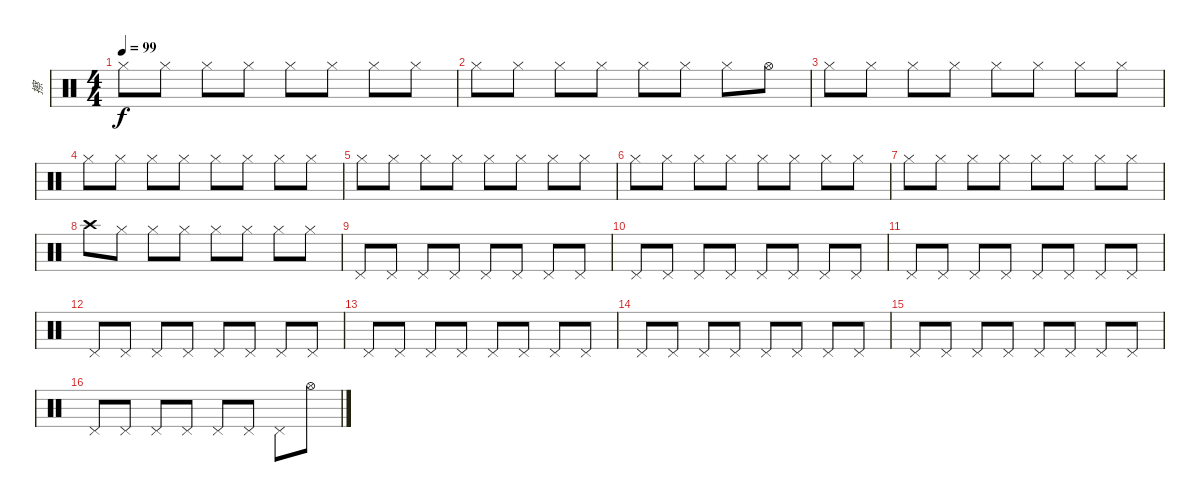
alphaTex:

\track ("擦" "擦") {instrument percussion}
\staff {score}
\articulation defaults
\ts (4 4)
\tempo 99
\clef neutral
\ks c "Hi-Hat (closed)".8{dy f} "Hi-Hat (closed)".8 "Hi-Hat (closed)".8 "Hi-Hat (closed)".8 "Hi-Hat (closed)".8 "Hi-Hat (closed)".8 "Hi-Hat (closed)".8 "Hi-Hat (closed)".8
|
"Hi-Hat (closed)".8 "Hi-Hat (closed)".8 "Hi-Hat (closed)".8 "Hi-Hat (closed)".8 "Hi-Hat (closed)".8 "Hi-Hat (closed)".8 "Hi-Hat (closed)".8 "Hi-Hat (open)".8 |
"Hi-Hat (closed)".8 "Hi-Hat (closed)".8 "Hi-Hat (closed)".8 "Hi-Hat (closed)".8 "Hi-Hat (closed)".8 "Hi-Hat (closed)".8 "Hi-Hat (closed)".8 "Hi-Hat (closed)".8 |
"Hi-Hat (closed)".8 "Hi-Hat (closed)".8 "Hi-Hat (closed)".8 "Hi-Hat (closed)".8 "Hi-Hat (closed)".8 "Hi-Hat (closed)".8 "Hi-Hat (closed)".8 "Hi-Hat (closed)".8 |
"Hi-Hat (closed)".8 "Hi-Hat (closed)".8 "Hi-Hat (closed)".8 "Hi-Hat (closed)".8 "Hi-Hat (closed)".8 "Hi-Hat (closed)".8 "Hi-Hat (closed)".8 "Hi-Hat (closed)".8 |
"Hi-Hat (closed)".8 "Hi-Hat (closed)".8 "Hi-Hat (closed)".8 "Hi-Hat (closed)".8 "Hi-Hat (closed)".8 "Hi-Hat (closed)".8 "Hi-Hat (closed)".8 "Hi-Hat (closed)".8 |
"Hi-Hat (closed)".8 "Hi-Hat (closed)".8 "Hi-Hat (closed)".8 "Hi-Hat (closed)".8 "Hi-Hat (closed)".8 "Hi-Hat (closed)".8 "Hi-Hat (closed)".8 "Hi-Hat (closed)".8 |
"Crash high (hit)".8 "Hi-Hat (closed)".8 "Hi-Hat (closed)".8 "Hi-Hat (closed)".8 "Hi-Hat (closed)".8 "Hi-Hat (closed)".8 "Hi-Hat (closed)".8 "Hi-Hat (closed)".8 |
"Pedal Hi-Hat (hit)".8 "Pedal Hi-Hat (hit)".8 "Pedal Hi-Hat (hit)".8 "Pedal Hi-Hat (hit)".8 "Pedal Hi-Hat (hit)".8 "Pedal Hi-Hat (hit)".8 "Pedal Hi-Hat (hit)".8 "Pedal Hi-Hat (hit)".8 |
"Pedal Hi-Hat (hit)".8 "Pedal Hi-Hat (hit)".8 "Pedal Hi-Hat (hit)".8 "Pedal Hi-Hat (hit)".8 "Pedal Hi-Hat (hit)".8 "Pedal Hi-Hat (hit)".8 "Pedal Hi-Hat (hit)".8 "Pedal Hi-Hat (hit)".8 |
"Pedal Hi-Hat (hit)".8 "Pedal Hi-Hat (hit)".8 "Pedal Hi-Hat (hit)".8 "Pedal Hi-Hat (hit)".8 "Pedal Hi-Hat (hit)".8 "Pedal Hi-Hat (hit)".8 "Pedal Hi-Hat (hit)".8 "Pedal Hi-Hat (hit)".8 |
"Pedal Hi-Hat (hit)".8 "Pedal Hi-Hat (hit)".8 "Pedal Hi-Hat (hit)".8 "Pedal Hi-Hat (hit)".8 "Pedal Hi-Hat (hit)".8 "Pedal Hi-Hat (hit)".8 "Pedal Hi-Hat (hit)".8 "Pedal Hi-Hat (hit)".8 |
"Pedal Hi-Hat (hit)".8 "Pedal Hi-Hat (hit)".8 "Pedal Hi-Hat (hit)".8 "Pedal Hi-Hat (hit)".8 "Pedal Hi-Hat (hit)".8 "Pedal Hi-Hat (hit)".8 "Pedal Hi-Hat (hit)".8 "Pedal Hi-Hat (hit)".8 |
"Pedal Hi-Hat (hit)".8 "Pedal Hi-Hat (hit)".8 "Pedal Hi-Hat (hit)".8 "Pedal Hi-Hat (hit)".8 "Pedal Hi-Hat (hit)".8 "Pedal Hi-Hat (hit)".8 "Pedal Hi-Hat (hit)".8 "Pedal Hi-Hat (hit)".8 |
"Pedal Hi-Hat (hit)".8 "Pedal Hi-Hat (hit)".8 "Pedal Hi-Hat (hit)".8 "Pedal Hi-Hat (hit)".8 "Pedal Hi-Hat (hit)".8 "Pedal Hi-Hat (hit)".8 "Pedal Hi-Hat (hit)".8 "Pedal Hi-Hat (hit)".8 |
"Pedal Hi-Hat (hit)".8 "Pedal Hi-Hat (hit)".8 "Pedal Hi-Hat (hit)".8 "Pedal Hi-Hat (hit)".8 "Pedal Hi-Hat (hit)".8 "Pedal Hi-Hat (hit)".8 "Pedal Hi-Hat (hit)".8 "Hi-Hat (open)".8
